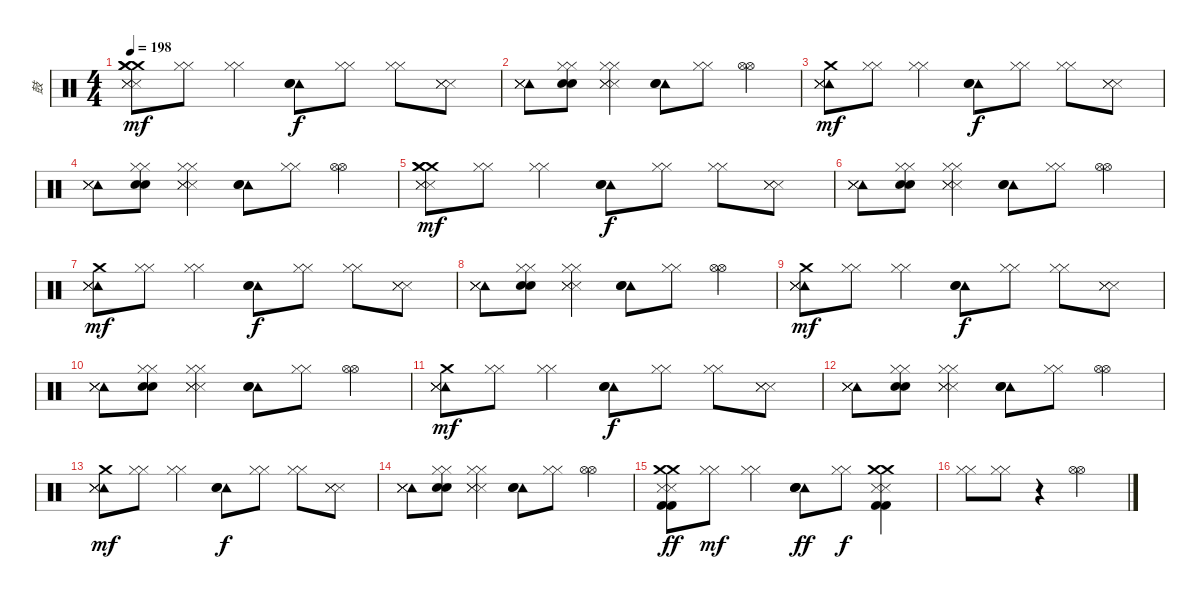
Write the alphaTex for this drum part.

\track ("鼓" "鼓") {instrument percussion}
\staff {score}
\articulation defaults
\ts (4 4)
\tempo 198
\clef neutral
\ks c
("Crash medium (hit)" "Crash medium (hit)" "Metronome (hit)" "Metronome (hit)" "Metronome (hit)" "Crash medium (hit)").8{dy mf} ("Hi-Hat (closed)" "Hi-Hat (closed)").8 ("Hi-Hat (closed)" "Hi-Hat (closed)").4 ("Tambourine (hit)" "Metronome (bell)" "Metronome (bell)").8{dy f} ("Hi-Hat (closed)" "Hi-Hat (closed)").8 ("Hi-Hat (closed)" "Hi-Hat (closed)").8 ("Metronome (hit)" "Metronome (hit)" "Metronome (hit)").8 |
("Tambourine (hit)" "Metronome (hit)" "Metronome (hit)" "Metronome (hit)").8 ("Hi-Hat (closed)" "Hi-Hat (closed)" "Metronome (bell)" "Metronome (bell)").8 ("Hi-Hat (closed)" "Hi-Hat (closed)" "Metronome (hit)" "Metronome (hit)" "Metronome (hit)").4 ("Tambourine (hit)" "Metronome (bell)" "Metronome (bell)").8 ("Hi-Hat (closed)" "Hi-Hat (closed)").8 ("Hi-Hat (open)" "Hi-Hat (open)").4 |
("Tambourine (hit)" "Crash medium (hit)" "Metronome (hit)" "Metronome (hit)" "Metronome (hit)").8{dy mf} ("Hi-Hat (closed)" "Hi-Hat (closed)").8 ("Hi-Hat (closed)" "Hi-Hat (closed)").4 ("Tambourine (hit)" "Metronome (bell)" "Metronome (bell)").8{dy f} ("Hi-Hat (closed)" "Hi-Hat (closed)").8 ("Hi-Hat (closed)" "Hi-Hat (closed)").8 ("Metronome (hit)" "Metronome (hit)" "Metronome (hit)").8 |
("Tambourine (hit)" "Metronome (hit)" "Metronome (hit)" "Metronome (hit)").8 ("Hi-Hat (closed)" "Hi-Hat (closed)" "Metronome (bell)" "Metronome (bell)").8 ("Hi-Hat (closed)" "Hi-Hat (closed)" "Metronome (hit)" "Metronome (hit)" "Metronome (hit)").4 ("Tambourine (hit)" "Metronome (bell)" "Metronome (bell)").8 ("Hi-Hat (closed)" "Hi-Hat (closed)").8 ("Hi-Hat (open)" "Hi-Hat (open)").4 |
("Crash medium (hit)" "Crash medium (hit)" "Metronome (hit)" "Metronome (hit)" "Metronome (hit)" "Crash medium (hit)").8{dy mf} ("Hi-Hat (closed)" "Hi-Hat (closed)").8 ("Hi-Hat (closed)" "Hi-Hat (closed)").4 ("Tambourine (hit)" "Metronome (bell)" "Metronome (bell)").8{dy f} ("Hi-Hat (closed)" "Hi-Hat (closed)").8 ("Hi-Hat (closed)" "Hi-Hat (closed)").8 ("Metronome (hit)" "Metronome (hit)" "Metronome (hit)").8 |
("Tambourine (hit)" "Metronome (hit)" "Metronome (hit)" "Metronome (hit)").8 ("Hi-Hat (closed)" "Hi-Hat (closed)" "Metronome (bell)" "Metronome (bell)").8 ("Hi-Hat (closed)" "Hi-Hat (closed)" "Metronome (hit)" "Metronome (hit)" "Metronome (hit)").4 ("Tambourine (hit)" "Metronome (bell)" "Metronome (bell)").8 ("Hi-Hat (closed)" "Hi-Hat (closed)").8 ("Hi-Hat (open)" "Hi-Hat (open)").4 |
("Tambourine (hit)" "Crash medium (hit)" "Metronome (hit)" "Metronome (hit)" "Metronome (hit)").8{dy mf} ("Hi-Hat (closed)" "Hi-Hat (closed)").8 ("Hi-Hat (closed)" "Hi-Hat (closed)").4 ("Tambourine (hit)" "Metronome (bell)" "Metronome (bell)").8{dy f} ("Hi-Hat (closed)" "Hi-Hat (closed)").8 ("Hi-Hat (closed)" "Hi-Hat (closed)").8 ("Metronome (hit)" "Metronome (hit)" "Metronome (hit)").8 |
("Tambourine (hit)" "Metronome (hit)" "Metronome (hit)" "Metronome (hit)").8 ("Hi-Hat (closed)" "Hi-Hat (closed)" "Metronome (bell)" "Metronome (bell)").8 ("Hi-Hat (closed)" "Hi-Hat (closed)" "Metronome (hit)" "Metronome (hit)" "Metronome (hit)").4 ("Tambourine (hit)" "Metronome (bell)" "Metronome (bell)").8 ("Hi-Hat (closed)" "Hi-Hat (closed)").8 ("Hi-Hat (open)" "Hi-Hat (open)").4 |
("Tambourine (hit)" "Crash medium (hit)" "Metronome (hit)" "Metronome (hit)" "Metronome (hit)").8{dy mf} ("Hi-Hat (closed)" "Hi-Hat (closed)").8 ("Hi-Hat (closed)" "Hi-Hat (closed)").4 ("Tambourine (hit)" "Metronome (bell)" "Metronome (bell)").8{dy f} ("Hi-Hat (closed)" "Hi-Hat (closed)").8 ("Hi-Hat (closed)" "Hi-Hat (closed)").8 ("Metronome (hit)" "Metronome (hit)" "Metronome (hit)").8 |
("Tambourine (hit)" "Metronome (hit)" "Metronome (hit)" "Metronome (hit)").8 ("Hi-Hat (closed)" "Hi-Hat (closed)" "Metronome (bell)" "Metronome (bell)").8 ("Hi-Hat (closed)" "Hi-Hat (closed)" "Metronome (hit)" "Metronome (hit)" "Metronome (hit)").4 ("Tambourine (hit)" "Metronome (bell)" "Metronome (bell)").8 ("Hi-Hat (closed)" "Hi-Hat (closed)").8 ("Hi-Hat (open)" "Hi-Hat (open)").4 |
("Tambourine (hit)" "Crash medium (hit)" "Metronome (hit)" "Metronome (hit)" "Metronome (hit)").8{dy mf} ("Hi-Hat (closed)" "Hi-Hat (closed)").8 ("Hi-Hat (closed)" "Hi-Hat (closed)").4 ("Tambourine (hit)" "Metronome (bell)" "Metronome (bell)").8{dy f} ("Hi-Hat (closed)" "Hi-Hat (closed)").8 ("Hi-Hat (closed)" "Hi-Hat (closed)").8 ("Metronome (hit)" "Metronome (hit)" "Metronome (hit)").8 |
("Tambourine (hit)" "Metronome (hit)" "Metronome (hit)" "Metronome (hit)").8 ("Hi-Hat (closed)" "Hi-Hat (closed)" "Metronome (bell)" "Metronome (bell)").8 ("Hi-Hat (closed)" "Hi-Hat (closed)" "Metronome (hit)" "Metronome (hit)" "Metronome (hit)").4 ("Tambourine (hit)" "Metronome (bell)" "Metronome (bell)").8 ("Hi-Hat (closed)" "Hi-Hat (closed)").8 ("Hi-Hat (open)" "Hi-Hat (open)").4 |
("Tambourine (hit)" "Crash medium (hit)" "Metronome (hit)" "Metronome (hit)" "Metronome (hit)").8{dy mf} ("Hi-Hat (closed)" "Hi-Hat (closed)").8 ("Hi-Hat (closed)" "Hi-Hat (closed)").4 ("Tambourine (hit)" "Metronome (bell)" "Metronome (bell)").8{dy f} ("Hi-Hat (closed)" "Hi-Hat (closed)").8 ("Hi-Hat (closed)" "Hi-Hat (closed)").8 ("Metronome (hit)" "Metronome (hit)" "Metronome (hit)").8 |
("Tambourine (hit)" "Metronome (hit)" "Metronome (hit)" "Metronome (hit)").8 ("Hi-Hat (closed)" "Hi-Hat (closed)" "Metronome (bell)" "Metronome (bell)").8 ("Hi-Hat (closed)" "Hi-Hat (closed)" "Metronome (hit)" "Metronome (hit)" "Metronome (hit)").4 ("Tambourine (hit)" "Metronome (bell)" "Metronome (bell)").8 ("Hi-Hat (closed)" "Hi-Hat (closed)").8 ("Hi-Hat (open)" "Hi-Hat (open)").4 |
("Crash medium (hit)" "Crash medium (hit)" "Kick (hit) 2" "Metronome (hit)" "Kick (hit) 2" "Metronome (hit)").8{dy ff} ("Hi-Hat (closed)" "Hi-Hat (closed)").8{dy mf} ("Hi-Hat (closed)" "Hi-Hat (closed)").4 ("Tambourine (hit)" "Metronome (bell)" "Metronome (bell)" "Metronome (bell)").8{dy ff} ("Hi-Hat (closed)" "Hi-Hat (closed)").8{dy f} ("Crash medium (hit)" "Crash medium (hit)" "Metronome (hit)" "Kick (hit) 2" "Metronome (hit)" "Kick (hit) 2").4 |
("Hi-Hat (closed)" "Hi-Hat (closed)").8 ("Hi-Hat (closed)" "Hi-Hat (closed)").8 r.4 ("Hi-Hat (open)" "Hi-Hat (open)").2
